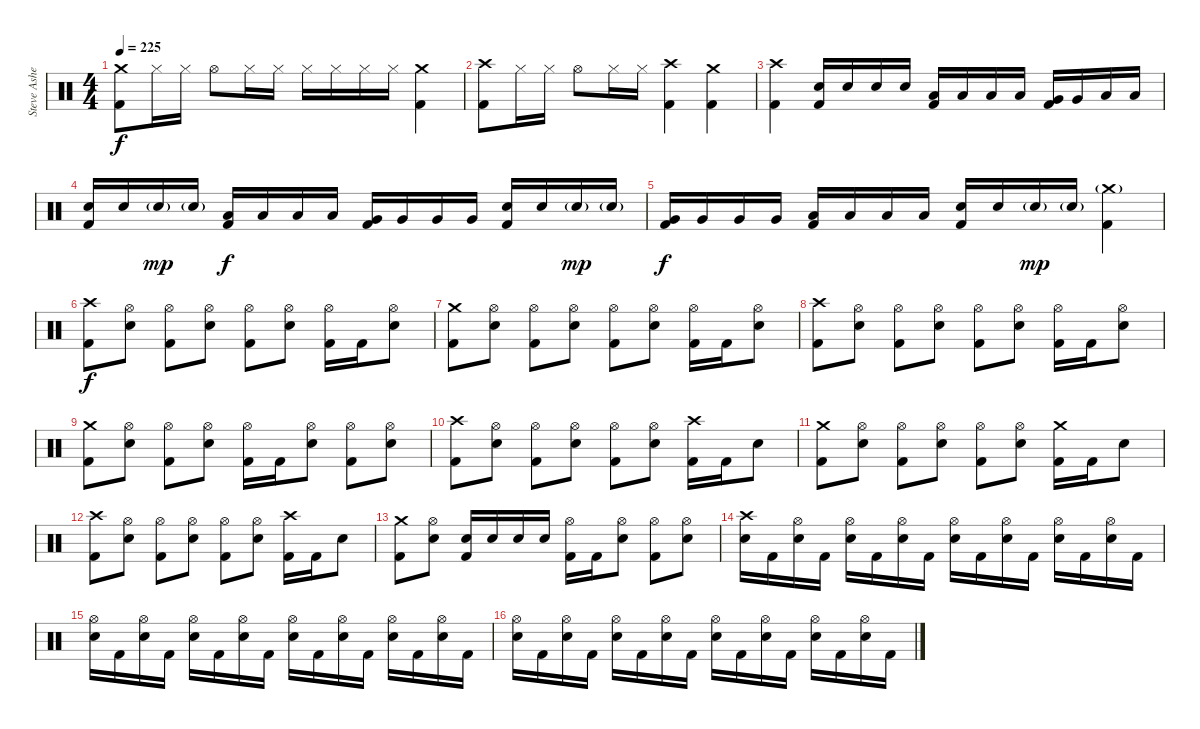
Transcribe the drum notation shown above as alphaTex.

\track ("Steve Asheim" "Steve Ashe") {instrument percussion}
\staff {score}
\articulation defaults
\ts (4 4)
\tempo 225
\clef neutral
\ks c
("Crash medium (hit)" "Kick (hit) 2").8{dy f} "Hi-Hat (closed)".16 "Hi-Hat (closed)".16 "Hi-Hat (open)".8 "Hi-Hat (closed)".16 "Hi-Hat (closed)".16 "Hi-Hat (closed)".16 "Hi-Hat (closed)".16 "Hi-Hat (closed)".16 "Hi-Hat (closed)".16 ("Crash medium (hit)" "Kick (hit) 2").4 |
("Crash high (hit)" "Kick (hit) 2").8 "Hi-Hat (closed)".16 "Hi-Hat (closed)".16 "Hi-Hat (open)".8 "Hi-Hat (closed)".16 "Hi-Hat (closed)".16 ("Crash high (hit)" "Kick (hit) 2").4 ("Crash medium (hit)" "Kick (hit) 2").4 |
("Crash high (hit)" "Kick (hit) 2").4 ("Electric Snare (hit)" "Kick (hit) 2").16 "Electric Snare (hit)".16 "Electric Snare (hit)".16 "Electric Snare (hit)".16 ("Low Tom (hit)" "Kick (hit) 2").16 "Low Tom (hit)".16 "Low Tom (hit)".16 "Low Tom (hit)".16 ("Very Low Tom (hit)" "Kick (hit) 2").16 "Very Low Tom (hit)".16 "Low Floor Tom (hit)".16 "Low Floor Tom (hit)".16 |
("Electric Snare (hit)" "Kick (hit) 2").16 "Electric Snare (hit)".16 "Electric Snare (hit)"{g}.16{dy mp} "Electric Snare (hit)"{g}.16 ("Low Tom (hit)" "Kick (hit) 2").16{dy f} "Low Tom (hit)".16 "Low Tom (hit)".16 "Low Tom (hit)".16 ("Very Low Tom (hit)" "Kick (hit) 2").16 "Very Low Tom (hit)".16 "Very Low Tom (hit)".16 "Very Low Tom (hit)".16 ("Electric Snare (hit)" "Kick (hit) 2").16 "Electric Snare (hit)".16 "Electric Snare (hit)"{g}.16{dy mp} "Electric Snare (hit)"{g}.16 |
("Very Low Tom (hit)" "Kick (hit) 2").16{dy f} "Very Low Tom (hit)".16 "Very Low Tom (hit)".16 "Very Low Tom (hit)".16 ("Low Floor Tom (hit)" "Kick (hit) 2").16 "Low Floor Tom (hit)".16 "Low Floor Tom (hit)".16 "Low Floor Tom (hit)".16 ("Electric Snare (hit)" "Kick (hit) 2").16 "Electric Snare (hit)".16 "Electric Snare (hit)"{g}.16{dy mp} "Electric Snare (hit)"{g}.16 ("Crash medium (hit)"{g} "Kick (hit) 2").4 |
("Crash high (hit)" "Kick (hit) 2").8{dy f} ("Hi-Hat (open)" "Electric Snare (hit)").8 ("Hi-Hat (open)" "Kick (hit) 2").8 ("Hi-Hat (open)" "Electric Snare (hit)").8 ("Hi-Hat (open)" "Kick (hit) 2").8 ("Hi-Hat (open)" "Electric Snare (hit)").8 ("Hi-Hat (open)" "Kick (hit) 2").16 "Kick (hit) 2".16 ("Hi-Hat (open)" "Electric Snare (hit)").8 |
("Crash medium (hit)" "Kick (hit) 2").8 ("Hi-Hat (open)" "Electric Snare (hit)").8 ("Hi-Hat (open)" "Kick (hit) 2").8 ("Hi-Hat (open)" "Electric Snare (hit)").8 ("Hi-Hat (open)" "Kick (hit) 2").8 ("Hi-Hat (open)" "Electric Snare (hit)").8 ("Hi-Hat (open)" "Kick (hit) 2").16 "Kick (hit) 2".16 ("Hi-Hat (open)" "Electric Snare (hit)").8 |
("Crash high (hit)" "Kick (hit) 2").8 ("Hi-Hat (open)" "Electric Snare (hit)").8 ("Hi-Hat (open)" "Kick (hit) 2").8 ("Hi-Hat (open)" "Electric Snare (hit)").8 ("Hi-Hat (open)" "Kick (hit) 2").8 ("Hi-Hat (open)" "Electric Snare (hit)").8 ("Hi-Hat (open)" "Kick (hit) 2").16 "Kick (hit) 2".16 ("Hi-Hat (open)" "Electric Snare (hit)").8 |
("Crash medium (hit)" "Kick (hit) 2").8 ("Hi-Hat (open)" "Electric Snare (hit)").8 ("Hi-Hat (open)" "Kick (hit) 2").8 ("Hi-Hat (open)" "Electric Snare (hit)").8 ("Hi-Hat (open)" "Kick (hit) 2").16 "Kick (hit) 2".16 ("Hi-Hat (open)" "Electric Snare (hit)").8 ("Hi-Hat (open)" "Kick (hit) 2").8 ("Hi-Hat (open)" "Electric Snare (hit)").8 |
("Crash high (hit)" "Kick (hit) 2").8 ("Hi-Hat (open)" "Electric Snare (hit)").8 ("Hi-Hat (open)" "Kick (hit) 2").8 ("Hi-Hat (open)" "Electric Snare (hit)").8 ("Hi-Hat (open)" "Kick (hit) 2").8 ("Hi-Hat (open)" "Electric Snare (hit)").8 ("Crash high (hit)" "Kick (hit) 2").16 "Kick (hit) 2".16 "Electric Snare (hit)".8 |
("Crash medium (hit)" "Kick (hit) 2").8 ("Hi-Hat (open)" "Electric Snare (hit)").8 ("Hi-Hat (open)" "Kick (hit) 2").8 ("Hi-Hat (open)" "Electric Snare (hit)").8 ("Hi-Hat (open)" "Kick (hit) 2").8 ("Hi-Hat (open)" "Electric Snare (hit)").8 ("Crash medium (hit)" "Kick (hit) 2").16 "Kick (hit) 2".16 "Electric Snare (hit)".8 |
("Crash high (hit)" "Kick (hit) 2").8 ("Hi-Hat (open)" "Electric Snare (hit)").8 ("Hi-Hat (open)" "Kick (hit) 2").8 ("Hi-Hat (open)" "Electric Snare (hit)").8 ("Hi-Hat (open)" "Kick (hit) 2").8 ("Hi-Hat (open)" "Electric Snare (hit)").8 ("Crash high (hit)" "Kick (hit) 2").16 "Kick (hit) 2".16 "Electric Snare (hit)".8 |
("Crash medium (hit)" "Kick (hit) 2").8 ("Hi-Hat (open)" "Electric Snare (hit)").8 ("Electric Snare (hit)" "Kick (hit) 2").16 "Electric Snare (hit)".16 "Electric Snare (hit)".16 "Electric Snare (hit)".16 ("Hi-Hat (open)" "Kick (hit) 2").16 "Kick (hit) 2".16 ("Hi-Hat (open)" "Electric Snare (hit)").8 ("Hi-Hat (open)" "Kick (hit) 2").8 ("Hi-Hat (open)" "Electric Snare (hit)").8 |
("Crash high (hit)" "Electric Snare (hit)").16 "Kick (hit) 2".16 ("Hi-Hat (open)" "Electric Snare (hit)").16 "Kick (hit) 2".16 ("Hi-Hat (open)" "Electric Snare (hit)").16 "Kick (hit) 2".16 ("Hi-Hat (open)" "Electric Snare (hit)").16 "Kick (hit) 2".16 ("Hi-Hat (open)" "Electric Snare (hit)").16 "Kick (hit) 2".16 ("Hi-Hat (open)" "Electric Snare (hit)").16 "Kick (hit) 2".16 ("Hi-Hat (open)" "Electric Snare (hit)").16 "Kick (hit) 2".16 ("Hi-Hat (open)" "Electric Snare (hit)").16 "Kick (hit) 2".16 |
("Hi-Hat (open)" "Electric Snare (hit)").16 "Kick (hit) 2".16 ("Hi-Hat (open)" "Electric Snare (hit)").16 "Kick (hit) 2".16 ("Hi-Hat (open)" "Electric Snare (hit)").16 "Kick (hit) 2".16 ("Hi-Hat (open)" "Electric Snare (hit)").16 "Kick (hit) 2".16 ("Hi-Hat (open)" "Electric Snare (hit)").16 "Kick (hit) 2".16 ("Hi-Hat (open)" "Electric Snare (hit)").16 "Kick (hit) 2".16 ("Hi-Hat (open)" "Electric Snare (hit)").16 "Kick (hit) 2".16 ("Hi-Hat (open)" "Electric Snare (hit)").16 "Kick (hit) 2".16 |
("Hi-Hat (open)" "Electric Snare (hit)").16 "Kick (hit) 2".16 ("Hi-Hat (open)" "Electric Snare (hit)").16 "Kick (hit) 2".16 ("Hi-Hat (open)" "Electric Snare (hit)").16 "Kick (hit) 2".16 ("Hi-Hat (open)" "Electric Snare (hit)").16 "Kick (hit) 2".16 ("Hi-Hat (open)" "Electric Snare (hit)").16 "Kick (hit) 2".16 ("Hi-Hat (open)" "Electric Snare (hit)").16 "Kick (hit) 2".16 ("Hi-Hat (open)" "Electric Snare (hit)").16 "Kick (hit) 2".16 ("Hi-Hat (open)" "Electric Snare (hit)").16 "Kick (hit) 2".16
